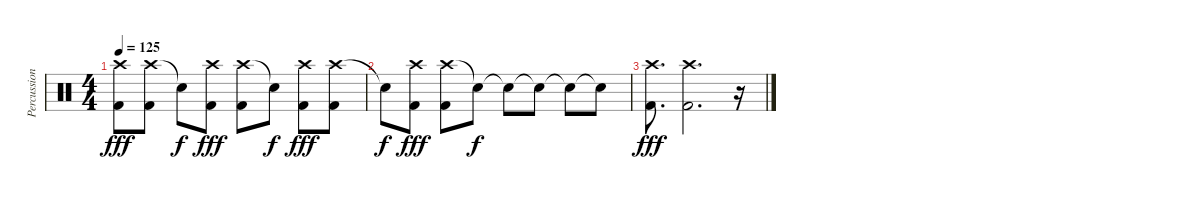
\track ("Percussion" "Percussion") {instrument percussion}
\staff {score}
\articulation defaults
\ts (4 4)
\tempo 125
\clef neutral
\ks c
("Crash high (hit)" "Kick (hit) 2").8{dy fff} ("Crash high (hit)" "Kick (hit) 2").8 "Snare (hit)"{t}.8{dy f} ("Crash high (hit)" "Kick (hit) 2").8{dy fff} ("Crash high (hit)" "Kick (hit) 2").8 "Snare (hit)"{t}.8{dy f} ("Crash high (hit)" "Kick (hit) 2").8{dy fff} ("Crash high (hit)" "Kick (hit) 2").8 |
"Snare (hit)"{t}.8{dy f} ("Crash high (hit)" "Kick (hit) 2").8{dy fff} ("Crash high (hit)" "Kick (hit) 2").8 "Snare (hit)"{t}.8{dy f} "Snare (hit)"{t}.8 "Snare (hit)"{t}.8 "Snare (hit)"{t}.8 "Snare (hit)"{t}.8 |
("Crash high (hit)" "Kick (hit) 2").8{d dy fff} ("Crash high (hit)" "Kick (hit) 2").2{d volume 0} r.16
